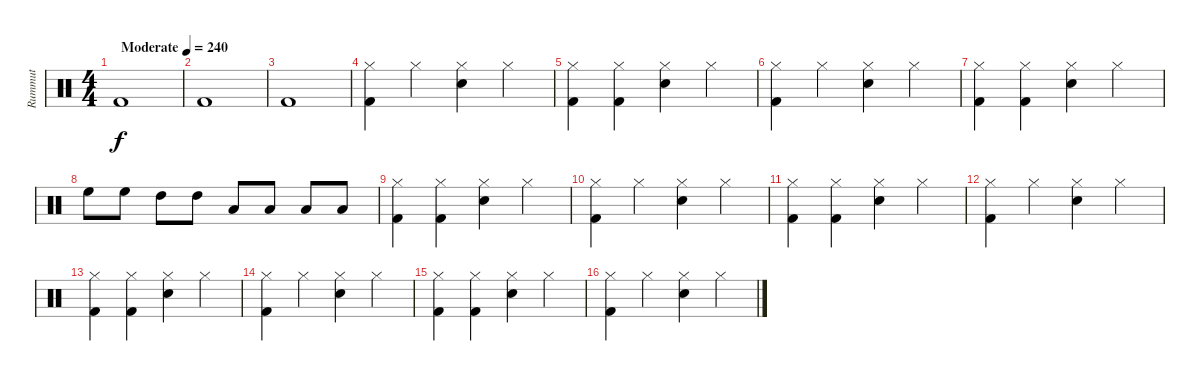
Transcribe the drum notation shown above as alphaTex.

\track ("Rummut" "Rummut") {instrument percussion}
\staff
\articulation defaults
\ts (4 4)
\tempo (240 "Moderate")
\clef neutral
\ks c "Kick (hit) 2".1{dy f}
|
"Kick (hit) 2".1 |
"Kick (hit) 2".1 |
("Hi-Hat (closed)" "Kick (hit) 2").4 "Hi-Hat (closed)".4 ("Hi-Hat (closed)" "Electric Snare (hit)").4 "Hi-Hat (closed)".4 |
("Hi-Hat (closed)" "Kick (hit) 2").4 ("Hi-Hat (closed)" "Kick (hit) 2").4 ("Hi-Hat (closed)" "Electric Snare (hit)").4 "Hi-Hat (closed)".4 |
("Hi-Hat (closed)" "Kick (hit) 2").4 "Hi-Hat (closed)".4 ("Hi-Hat (closed)" "Electric Snare (hit)").4 "Hi-Hat (closed)".4 |
("Hi-Hat (closed)" "Kick (hit) 2").4 ("Hi-Hat (closed)" "Kick (hit) 2").4 ("Hi-Hat (closed)" "Electric Snare (hit)").4 "Hi-Hat (closed)".4 |
"High Floor Tom (hit)".8 "High Floor Tom (hit)".8 "High Tom (hit)".8 "High Tom (hit)".8 "Low Tom (hit)".8 "Low Tom (hit)".8 "Low Floor Tom (hit)".8 "Low Floor Tom (hit)".8 |
("Hi-Hat (closed)" "Kick (hit) 2").4 ("Hi-Hat (closed)" "Kick (hit) 2").4 ("Hi-Hat (closed)" "Electric Snare (hit)").4 "Hi-Hat (closed)".4 |
("Hi-Hat (closed)" "Kick (hit) 2").4 "Hi-Hat (closed)".4 ("Hi-Hat (closed)" "Electric Snare (hit)").4 "Hi-Hat (closed)".4 |
("Hi-Hat (closed)" "Kick (hit) 2").4 ("Hi-Hat (closed)" "Kick (hit) 2").4 ("Hi-Hat (closed)" "Electric Snare (hit)").4 "Hi-Hat (closed)".4 |
("Hi-Hat (closed)" "Kick (hit) 2").4 "Hi-Hat (closed)".4 ("Hi-Hat (closed)" "Electric Snare (hit)").4 "Hi-Hat (closed)".4 |
("Hi-Hat (closed)" "Kick (hit) 2").4 ("Hi-Hat (closed)" "Kick (hit) 2").4 ("Hi-Hat (closed)" "Electric Snare (hit)").4 "Hi-Hat (closed)".4 |
("Hi-Hat (closed)" "Kick (hit) 2").4 "Hi-Hat (closed)".4 ("Hi-Hat (closed)" "Electric Snare (hit)").4 "Hi-Hat (closed)".4 |
("Hi-Hat (closed)" "Kick (hit) 2").4 ("Hi-Hat (closed)" "Kick (hit) 2").4 ("Hi-Hat (closed)" "Electric Snare (hit)").4 "Hi-Hat (closed)".4 |
("Hi-Hat (closed)" "Kick (hit) 2").4 "Hi-Hat (closed)".4 ("Hi-Hat (closed)" "Electric Snare (hit)").4 "Hi-Hat (closed)".4
